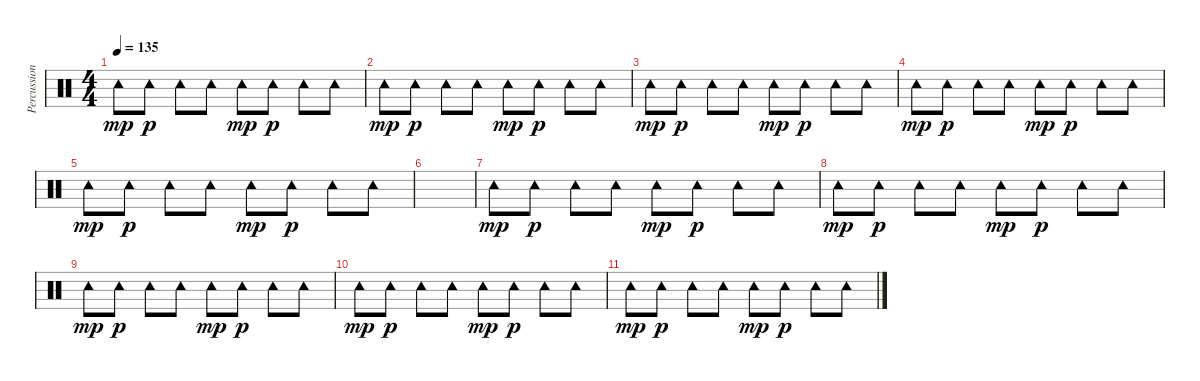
\track ("Percussion2" "Percussion") {instrument percussion}
\staff {score}
\articulation defaults
\ts (4 4)
\tempo 135
\clef neutral
\ks c "Tambourine (hit)".8{dy mp} "Tambourine (hit)".8{dy p} "Tambourine (hit)".8 "Tambourine (hit)".8 "Tambourine (hit)".8{dy mp} "Tambourine (hit)".8{dy p} "Tambourine (hit)".8 "Tambourine (hit)".8
|
"Tambourine (hit)".8{dy mp} "Tambourine (hit)".8{dy p} "Tambourine (hit)".8 "Tambourine (hit)".8 "Tambourine (hit)".8{dy mp} "Tambourine (hit)".8{dy p} "Tambourine (hit)".8 "Tambourine (hit)".8 |
"Tambourine (hit)".8{dy mp} "Tambourine (hit)".8{dy p} "Tambourine (hit)".8 "Tambourine (hit)".8 "Tambourine (hit)".8{dy mp} "Tambourine (hit)".8{dy p} "Tambourine (hit)".8 "Tambourine (hit)".8 |
"Tambourine (hit)".8{dy mp} "Tambourine (hit)".8{dy p} "Tambourine (hit)".8 "Tambourine (hit)".8 "Tambourine (hit)".8{dy mp} "Tambourine (hit)".8{dy p} "Tambourine (hit)".8 "Tambourine (hit)".8 |
"Tambourine (hit)".8{dy mp} "Tambourine (hit)".8{dy p} "Tambourine (hit)".8 "Tambourine (hit)".8 "Tambourine (hit)".8{dy mp} "Tambourine (hit)".8{dy p} "Tambourine (hit)".8 "Tambourine (hit)".8 |
|
"Tambourine (hit)".8{dy mp} "Tambourine (hit)".8{dy p} "Tambourine (hit)".8 "Tambourine (hit)".8 "Tambourine (hit)".8{dy mp} "Tambourine (hit)".8{dy p} "Tambourine (hit)".8 "Tambourine (hit)".8 |
"Tambourine (hit)".8{dy mp} "Tambourine (hit)".8{dy p} "Tambourine (hit)".8 "Tambourine (hit)".8 "Tambourine (hit)".8{dy mp} "Tambourine (hit)".8{dy p} "Tambourine (hit)".8 "Tambourine (hit)".8 |
"Tambourine (hit)".8{dy mp} "Tambourine (hit)".8{dy p} "Tambourine (hit)".8 "Tambourine (hit)".8 "Tambourine (hit)".8{dy mp} "Tambourine (hit)".8{dy p} "Tambourine (hit)".8 "Tambourine (hit)".8 |
"Tambourine (hit)".8{dy mp} "Tambourine (hit)".8{dy p} "Tambourine (hit)".8 "Tambourine (hit)".8 "Tambourine (hit)".8{dy mp} "Tambourine (hit)".8{dy p} "Tambourine (hit)".8 "Tambourine (hit)".8 |
"Tambourine (hit)".8{dy mp} "Tambourine (hit)".8{dy p} "Tambourine (hit)".8 "Tambourine (hit)".8 "Tambourine (hit)".8{dy mp} "Tambourine (hit)".8{dy p} "Tambourine (hit)".8 "Tambourine (hit)".8
